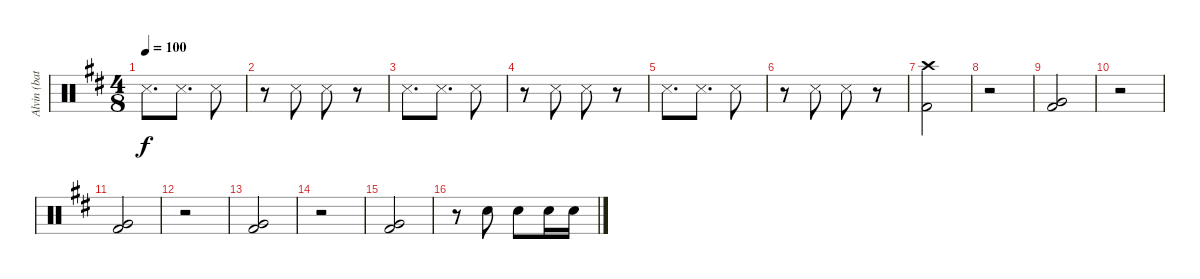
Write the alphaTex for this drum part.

\track ("Alvin (bateria)" "Alvin (bat") {instrument percussion}
\staff {score}
\articulation defaults
\ts (4 8)
\tempo 100
\clef neutral
\ks bminor "Snare (side stick) 3".8{d dy f} "Snare (side stick) 3".8{d} "Snare (side stick) 3".8
|
r.8 "Snare (side stick) 3".8 "Snare (side stick) 3".8 r.8 |
"Snare (side stick) 3".8{d} "Snare (side stick) 3".8{d} "Snare (side stick) 3".8 |
r.8 "Snare (side stick) 3".8 "Snare (side stick) 3".8 r.8 |
"Snare (side stick) 3".8{d} "Snare (side stick) 3".8{d} "Snare (side stick) 3".8 |
r.8 "Snare (side stick) 3".8 "Snare (side stick) 3".8 r.8 |
("Crash high (hit)" "Kick (hit) 2").2 |
r.2 |
("Kick (hit) 2" "Very Low Tom (hit)").2 |
r.2 |
("Kick (hit) 2" "Very Low Tom (hit)").2 |
r.2 |
("Kick (hit) 2" "Very Low Tom (hit)").2 |
r.2 |
("Kick (hit) 2" "Very Low Tom (hit)").2 |
r.8 "Electric Snare (hit)".8 "Electric Snare (hit)".8 "Electric Snare (hit)".16 "Electric Snare (hit)".16
